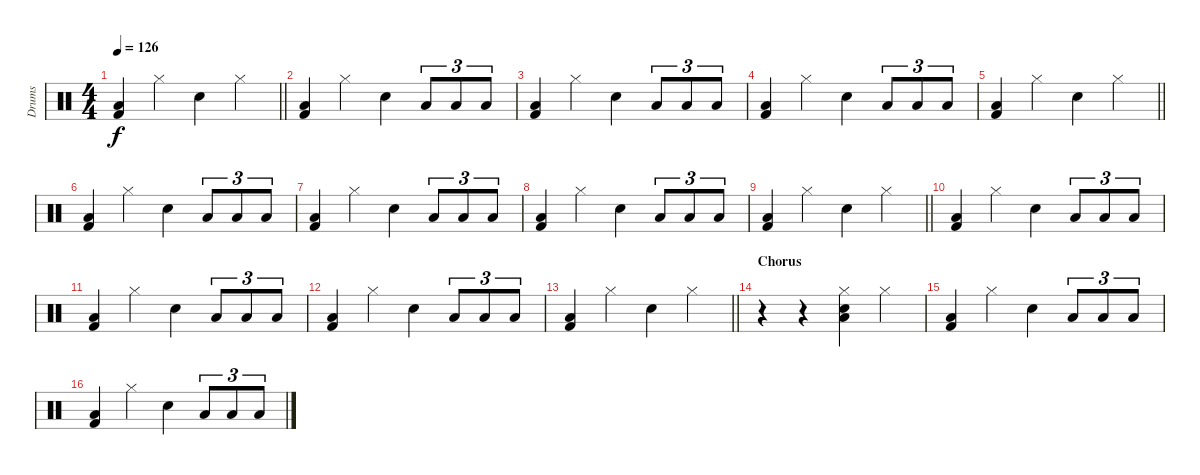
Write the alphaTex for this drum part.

\track ("Drums" "Drums") {instrument percussion}
\staff {score}
\articulation defaults
\ts (4 4)
\tempo 126
\clef neutral
\barLineRight lightlight
\ks c
("Low Floor Tom (hit)" "Kick (hit) 2").4{dy f} "Hi-Hat (closed)".4 "Electric Snare (hit)".4 "Hi-Hat (closed)".4 |
("Low Floor Tom (hit)" "Kick (hit) 2").4 "Hi-Hat (closed)".4 "Electric Snare (hit)".4 "Low Floor Tom (hit)".8{tu (3 2)} "Low Floor Tom (hit)".8{tu (3 2)} "Low Floor Tom (hit)".8{tu (3 2)} |
("Low Floor Tom (hit)" "Kick (hit) 2").4 "Hi-Hat (closed)".4 "Electric Snare (hit)".4 "Low Floor Tom (hit)".8{tu (3 2)} "Low Floor Tom (hit)".8{tu (3 2)} "Low Floor Tom (hit)".8{tu (3 2)} |
("Low Floor Tom (hit)" "Kick (hit) 2").4 "Hi-Hat (closed)".4 "Electric Snare (hit)".4 "Low Floor Tom (hit)".8{tu (3 2)} "Low Floor Tom (hit)".8{tu (3 2)} "Low Floor Tom (hit)".8{tu (3 2)} |
\barLineRight lightlight
("Low Floor Tom (hit)" "Kick (hit) 2").4 "Hi-Hat (closed)".4 "Electric Snare (hit)".4 "Hi-Hat (closed)".4 |
("Low Floor Tom (hit)" "Kick (hit) 2").4 "Hi-Hat (closed)".4 "Electric Snare (hit)".4 "Low Floor Tom (hit)".8{tu (3 2)} "Low Floor Tom (hit)".8{tu (3 2)} "Low Floor Tom (hit)".8{tu (3 2)} |
("Low Floor Tom (hit)" "Kick (hit) 2").4 "Hi-Hat (closed)".4 "Electric Snare (hit)".4 "Low Floor Tom (hit)".8{tu (3 2)} "Low Floor Tom (hit)".8{tu (3 2)} "Low Floor Tom (hit)".8{tu (3 2)} |
("Low Floor Tom (hit)" "Kick (hit) 2").4 "Hi-Hat (closed)".4 "Electric Snare (hit)".4 "Low Floor Tom (hit)".8{tu (3 2)} "Low Floor Tom (hit)".8{tu (3 2)} "Low Floor Tom (hit)".8{tu (3 2)} |
\barLineRight lightlight
("Low Floor Tom (hit)" "Kick (hit) 2").4 "Hi-Hat (closed)".4 "Electric Snare (hit)".4 "Hi-Hat (closed)".4 |
("Low Floor Tom (hit)" "Kick (hit) 2").4 "Hi-Hat (closed)".4 "Electric Snare (hit)".4 "Low Floor Tom (hit)".8{tu (3 2)} "Low Floor Tom (hit)".8{tu (3 2)} "Low Floor Tom (hit)".8{tu (3 2)} |
("Low Floor Tom (hit)" "Kick (hit) 2").4 "Hi-Hat (closed)".4 "Electric Snare (hit)".4 "Low Floor Tom (hit)".8{tu (3 2)} "Low Floor Tom (hit)".8{tu (3 2)} "Low Floor Tom (hit)".8{tu (3 2)} |
("Low Floor Tom (hit)" "Kick (hit) 2").4 "Hi-Hat (closed)".4 "Electric Snare (hit)".4 "Low Floor Tom (hit)".8{tu (3 2)} "Low Floor Tom (hit)".8{tu (3 2)} "Low Floor Tom (hit)".8{tu (3 2)} |
\barLineRight lightlight
("Low Floor Tom (hit)" "Kick (hit) 2").4 "Hi-Hat (closed)".4 "Electric Snare (hit)".4 "Hi-Hat (closed)".4 |
\section ("" "Chorus")
r.4 r.4 ("Hi-Hat (closed)" "Electric Snare (hit)" "Low Floor Tom (hit)").4 "Hi-Hat (closed)".4 |
("Low Floor Tom (hit)" "Kick (hit) 2").4 "Hi-Hat (closed)".4 "Electric Snare (hit)".4 "Low Floor Tom (hit)".8{tu (3 2)} "Low Floor Tom (hit)".8{tu (3 2)} "Low Floor Tom (hit)".8{tu (3 2)} |
("Low Floor Tom (hit)" "Kick (hit) 2").4 "Hi-Hat (closed)".4 "Electric Snare (hit)".4 "Low Floor Tom (hit)".8{tu (3 2)} "Low Floor Tom (hit)".8{tu (3 2)} "Low Floor Tom (hit)".8{tu (3 2)}
